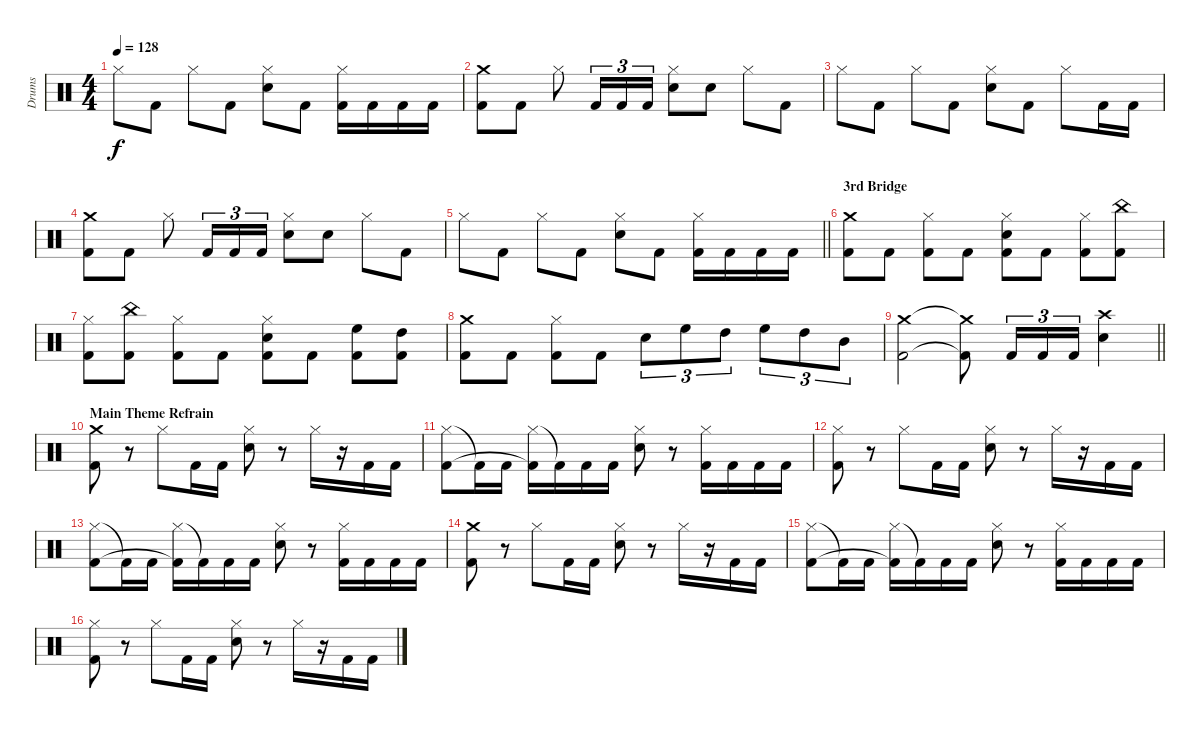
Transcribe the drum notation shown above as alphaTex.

\track ("Drums" "Drums") {instrument percussion}
\staff {score}
\articulation defaults
\ts (4 4)
\tempo 128
\clef neutral
\ks c "Hi-Hat (closed)".8{dy f} "Kick (hit) 2".8 "Hi-Hat (closed)".8 "Kick (hit) 2".8
("Hi-Hat (closed)" "Snare (hit) 2").8 "Kick (hit) 2".8 ("Hi-Hat (closed)" "Kick (hit) 2").16 "Kick (hit) 2".16 "Kick (hit) 2".16 "Kick (hit) 2".16 |
("Crash medium (hit)" "Kick (hit) 2").8 "Kick (hit) 2".8 "Hi-Hat (closed)".8 "Kick (hit) 2".16{tu (3 2)} "Kick (hit) 2".16{tu (3 2)} "Kick (hit) 2".16{tu (3 2)} ("Hi-Hat (closed)" "Snare (hit) 2").8 "Snare (hit) 2".8 "Hi-Hat (closed)".8 "Kick (hit) 2".8 |
"Hi-Hat (closed)".8 "Kick (hit) 2".8 "Hi-Hat (closed)".8 "Kick (hit) 2".8 ("Hi-Hat (closed)" "Snare (hit) 2").8 "Kick (hit) 2".8 "Hi-Hat (closed)".8 "Kick (hit) 2".16 "Kick (hit) 2".16 |
("Crash medium (hit)" "Kick (hit) 2").8 "Kick (hit) 2".8 "Hi-Hat (closed)".8 "Kick (hit) 2".16{tu (3 2)} "Kick (hit) 2".16{tu (3 2)} "Kick (hit) 2".16{tu (3 2)} ("Hi-Hat (closed)" "Snare (hit) 2").8 "Snare (hit) 2".8 "Hi-Hat (closed)".8 "Kick (hit) 2".8 |
\barLineRight lightlight "Hi-Hat (closed)".8 "Kick (hit) 2".8 "Hi-Hat (closed)".8 "Kick (hit) 2".8
("Hi-Hat (closed)" "Snare (hit) 2").8 "Kick (hit) 2".8 ("Hi-Hat (closed)" "Kick (hit) 2").16 "Kick (hit) 2".16 "Kick (hit) 2".16 "Kick (hit) 2".16 |
\section ("" "3rd Bridge")
("Crash medium (hit)" "Kick (hit) 2").8 "Kick (hit) 2".8 ("Hi-Hat (closed)" "Kick (hit) 2").8 "Kick (hit) 2".8 ("Hi-Hat (closed)" "Snare (hit) 2" "Kick (hit) 2").8 "Kick (hit) 2".8 ("Hi-Hat (closed)" "Kick (hit) 2").8 ("China (hit)" "Kick (hit) 2").8 |
("Hi-Hat (closed)" "Kick (hit) 2").8 ("China (hit)" "Kick (hit) 2").8 ("Hi-Hat (closed)" "Kick (hit) 2").8 "Kick (hit) 2".8 ("Hi-Hat (closed)" "Snare (hit) 2" "Kick (hit) 2").8 "Kick (hit) 2".8 ("High Floor Tom (hit)" "Kick (hit) 2").8 ("High Tom (hit)" "Kick (hit) 2").8 |
("Crash medium (hit)" "Kick (hit) 2").8 "Kick (hit) 2".8 ("Hi-Hat (closed)" "Kick (hit) 2").8 "Kick (hit) 2".8 "Snare (hit) 2".8{tu (3 2)} "High Floor Tom (hit)".8{tu (3 2)} "High Tom (hit)".8{tu (3 2)} "High Floor Tom (hit)".8{tu (3 2)} "High Tom (hit)".8{tu (3 2)} "Mid Tom (hit)".8{tu (3 2)} |
\barLineRight lightlight
("Crash medium (hit)" "Kick (hit) 2").2 ("Crash medium (hit)"{t} "Kick (hit) 2"{t}).8 "Kick (hit) 2".16{tu (3 2)} "Kick (hit) 2".16{tu (3 2)} "Kick (hit) 2".16{tu (3 2)} ("Crash high (hit)" "Snare (hit) 2").4 |
\section ("" "Main Theme Refrain")
("Crash medium (hit)" "Kick (hit) 2").8 r.8 "Hi-Hat (closed)".8 "Kick (hit) 2".16 "Kick (hit) 2".16 ("Hi-Hat (closed)" "Snare (hit) 2").8 r.8 "Hi-Hat (closed)".16 r.16 "Kick (hit) 2".16 "Kick (hit) 2".16 |
("Hi-Hat (closed)" "Kick (hit) 2").8 "Kick (hit) 2"{t}.16 "Kick (hit) 2".16 ("Hi-Hat (closed)" "Kick (hit) 2"{t}).16 "Kick (hit) 2"{t}.16 "Kick (hit) 2".16 "Kick (hit) 2".16 ("Hi-Hat (closed)" "Snare (hit) 2").8 r.8 ("Hi-Hat (closed)" "Kick (hit) 2").16 "Kick (hit) 2".16 "Kick (hit) 2".16 "Kick (hit) 2".16 |
("Hi-Hat (closed)" "Kick (hit) 2").8 r.8 "Hi-Hat (closed)".8 "Kick (hit) 2".16 "Kick (hit) 2".16 ("Hi-Hat (closed)" "Snare (hit) 2").8 r.8 "Hi-Hat (closed)".16 r.16 "Kick (hit) 2".16 "Kick (hit) 2".16 |
("Hi-Hat (closed)" "Kick (hit) 2").8 "Kick (hit) 2"{t}.16 "Kick (hit) 2".16 ("Hi-Hat (closed)" "Kick (hit) 2"{t}).16 "Kick (hit) 2"{t}.16 "Kick (hit) 2".16 "Kick (hit) 2".16 ("Hi-Hat (closed)" "Snare (hit) 2").8 r.8 ("Hi-Hat (closed)" "Kick (hit) 2").16 "Kick (hit) 2".16 "Kick (hit) 2".16 "Kick (hit) 2".16 |
("Crash medium (hit)" "Kick (hit) 2").8 r.8 "Hi-Hat (closed)".8 "Kick (hit) 2".16 "Kick (hit) 2".16 ("Hi-Hat (closed)" "Snare (hit) 2").8 r.8 "Hi-Hat (closed)".16 r.16 "Kick (hit) 2".16 "Kick (hit) 2".16 |
("Hi-Hat (closed)" "Kick (hit) 2").8 "Kick (hit) 2"{t}.16 "Kick (hit) 2".16 ("Hi-Hat (closed)" "Kick (hit) 2"{t}).16 "Kick (hit) 2"{t}.16 "Kick (hit) 2".16 "Kick (hit) 2".16 ("Hi-Hat (closed)" "Snare (hit) 2").8 r.8 ("Hi-Hat (closed)" "Kick (hit) 2").16 "Kick (hit) 2".16 "Kick (hit) 2".16 "Kick (hit) 2".16 |
("Hi-Hat (closed)" "Kick (hit) 2").8 r.8 "Hi-Hat (closed)".8 "Kick (hit) 2".16 "Kick (hit) 2".16 ("Hi-Hat (closed)" "Snare (hit) 2").8 r.8 "Hi-Hat (closed)".16 r.16 "Kick (hit) 2".16 "Kick (hit) 2".16
